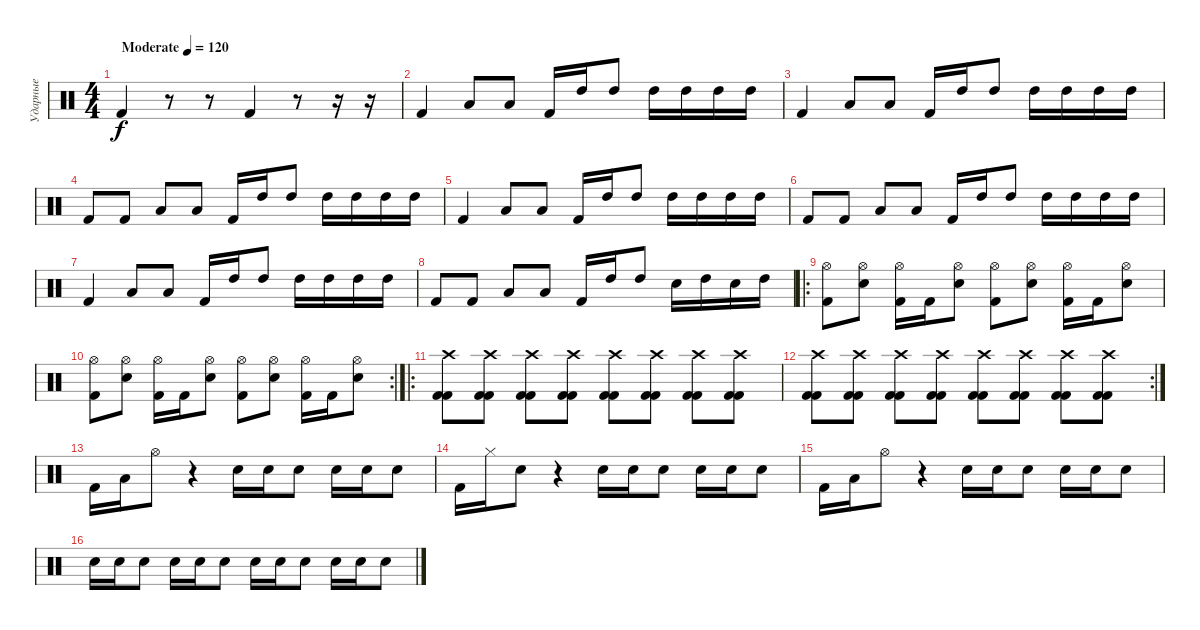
\track ("Ударные" "Ударные") {instrument percussion}
\staff {score}
\articulation defaults
\ts (4 4)
\tempo (120 "Moderate")
\clef neutral
\ks c "Kick (hit) 2".4{dy f}
r.8 r.8 "Kick (hit) 2".4 r.8 r.16 r.16 |
"Kick (hit) 2".4 "Low Tom (hit)".8 "Low Tom (hit)".8 "Kick (hit) 2".16 "High Tom (hit)".16 "High Tom (hit)".8 "High Tom (hit)".16 "High Tom (hit)".16 "High Tom (hit)".16 "High Tom (hit)".16 |
"Kick (hit) 2".4 "Low Tom (hit)".8 "Low Tom (hit)".8 "Kick (hit) 2".16 "High Tom (hit)".16 "High Tom (hit)".8 "High Tom (hit)".16 "High Tom (hit)".16 "High Tom (hit)".16 "High Tom (hit)".16 |
"Kick (hit) 2".8 "Kick (hit) 2".8 "Low Tom (hit)".8 "Low Tom (hit)".8 "Kick (hit) 2".16 "High Tom (hit)".16 "High Tom (hit)".8 "High Tom (hit)".16 "High Tom (hit)".16 "High Tom (hit)".16 "High Tom (hit)".16 |
"Kick (hit) 2".4 "Low Tom (hit)".8 "Low Tom (hit)".8 "Kick (hit) 2".16 "High Tom (hit)".16 "High Tom (hit)".8 "High Tom (hit)".16 "High Tom (hit)".16 "High Tom (hit)".16 "High Tom (hit)".16 |
"Kick (hit) 2".8 "Kick (hit) 2".8 "Low Tom (hit)".8 "Low Tom (hit)".8 "Kick (hit) 2".16 "High Tom (hit)".16 "High Tom (hit)".8 "High Tom (hit)".16 "High Tom (hit)".16 "High Tom (hit)".16 "High Tom (hit)".16 |
"Kick (hit) 2".4 "Low Tom (hit)".8 "Low Tom (hit)".8 "Kick (hit) 2".16 "High Tom (hit)".16 "High Tom (hit)".8 "High Tom (hit)".16 "High Tom (hit)".16 "High Tom (hit)".16 "High Tom (hit)".16 |
"Kick (hit) 2".8 "Kick (hit) 2".8 "Low Tom (hit)".8 "Low Tom (hit)".8 "Kick (hit) 2".16 "High Tom (hit)".16 "High Tom (hit)".8 "Snare (hit) 2".16 "High Tom (hit)".16 "Snare (hit) 2".16 "High Tom (hit)".16 |
\ro
("Hi-Hat (open)" "Kick (hit) 2").8 ("Hi-Hat (open)" "Snare (hit) 2").8 ("Hi-Hat (open)" "Kick (hit) 2").16 "Kick (hit) 2".16 ("Hi-Hat (open)" "Snare (hit) 2").8 ("Hi-Hat (open)" "Kick (hit) 2").8 ("Hi-Hat (open)" "Snare (hit) 2").8 ("Hi-Hat (open)" "Kick (hit) 2").16 "Kick (hit) 2".16 ("Hi-Hat (open)" "Snare (hit) 2").8 |
\rc 2
("Hi-Hat (open)" "Kick (hit) 2").8 ("Hi-Hat (open)" "Snare (hit) 2").8 ("Hi-Hat (open)" "Kick (hit) 2").16 "Kick (hit) 2".16 ("Hi-Hat (open)" "Snare (hit) 2").8 ("Hi-Hat (open)" "Kick (hit) 2").8 ("Hi-Hat (open)" "Snare (hit) 2").8 ("Hi-Hat (open)" "Kick (hit) 2").16 "Kick (hit) 2".16 ("Hi-Hat (open)" "Snare (hit) 2").8 |
\ro
("Crash high (hit)" "Kick (hit) 2" "Kick (hit) 2").8 ("Crash high (hit)" "Kick (hit) 2" "Kick (hit) 2").8 ("Crash high (hit)" "Kick (hit) 2" "Kick (hit) 2").8 ("Crash high (hit)" "Kick (hit) 2" "Kick (hit) 2").8 ("Crash high (hit)" "Kick (hit) 2" "Kick (hit) 2").8 ("Crash high (hit)" "Kick (hit) 2" "Kick (hit) 2").8 ("Crash high (hit)" "Kick (hit) 2" "Kick (hit) 2").8 ("Crash high (hit)" "Kick (hit) 2" "Kick (hit) 2").8 |
\rc 2
("Crash high (hit)" "Kick (hit) 2" "Kick (hit) 2").8 ("Crash high (hit)" "Kick (hit) 2" "Kick (hit) 2").8 ("Crash high (hit)" "Kick (hit) 2" "Kick (hit) 2").8 ("Crash high (hit)" "Kick (hit) 2" "Kick (hit) 2").8 ("Crash high (hit)" "Kick (hit) 2" "Kick (hit) 2").8 ("Crash high (hit)" "Kick (hit) 2" "Kick (hit) 2").8 ("Crash high (hit)" "Kick (hit) 2" "Kick (hit) 2").8 ("Crash high (hit)" "Kick (hit) 2" "Kick (hit) 2").8 |
"Kick (hit) 2".16 "Low Tom (hit)".16 "Hi-Hat (open)".8 r.4 "Snare (hit) 2".16 "Snare (hit) 2".16 "Snare (hit) 2".8 "Snare (hit) 2".16 "Snare (hit) 2".16 "Snare (hit) 2".8 |
"Kick (hit) 2".16 "Hi-Hat (closed)".16 "Snare (hit) 2".8 r.4 "Snare (hit) 2".16 "Snare (hit) 2".16 "Snare (hit) 2".8 "Snare (hit) 2".16 "Snare (hit) 2".16 "Snare (hit) 2".8 |
"Kick (hit) 2".16 "Low Tom (hit)".16 "Hi-Hat (open)".8 r.4 "Snare (hit) 2".16 "Snare (hit) 2".16 "Snare (hit) 2".8 "Snare (hit) 2".16 "Snare (hit) 2".16 "Snare (hit) 2".8 |
"Snare (hit) 2".16 "Snare (hit) 2".16 "Snare (hit) 2".8 "Snare (hit) 2".16 "Snare (hit) 2".16 "Snare (hit) 2".8 "Snare (hit) 2".16 "Snare (hit) 2".16 "Snare (hit) 2".8 "Snare (hit) 2".16 "Snare (hit) 2".16 "Snare (hit) 2".8
